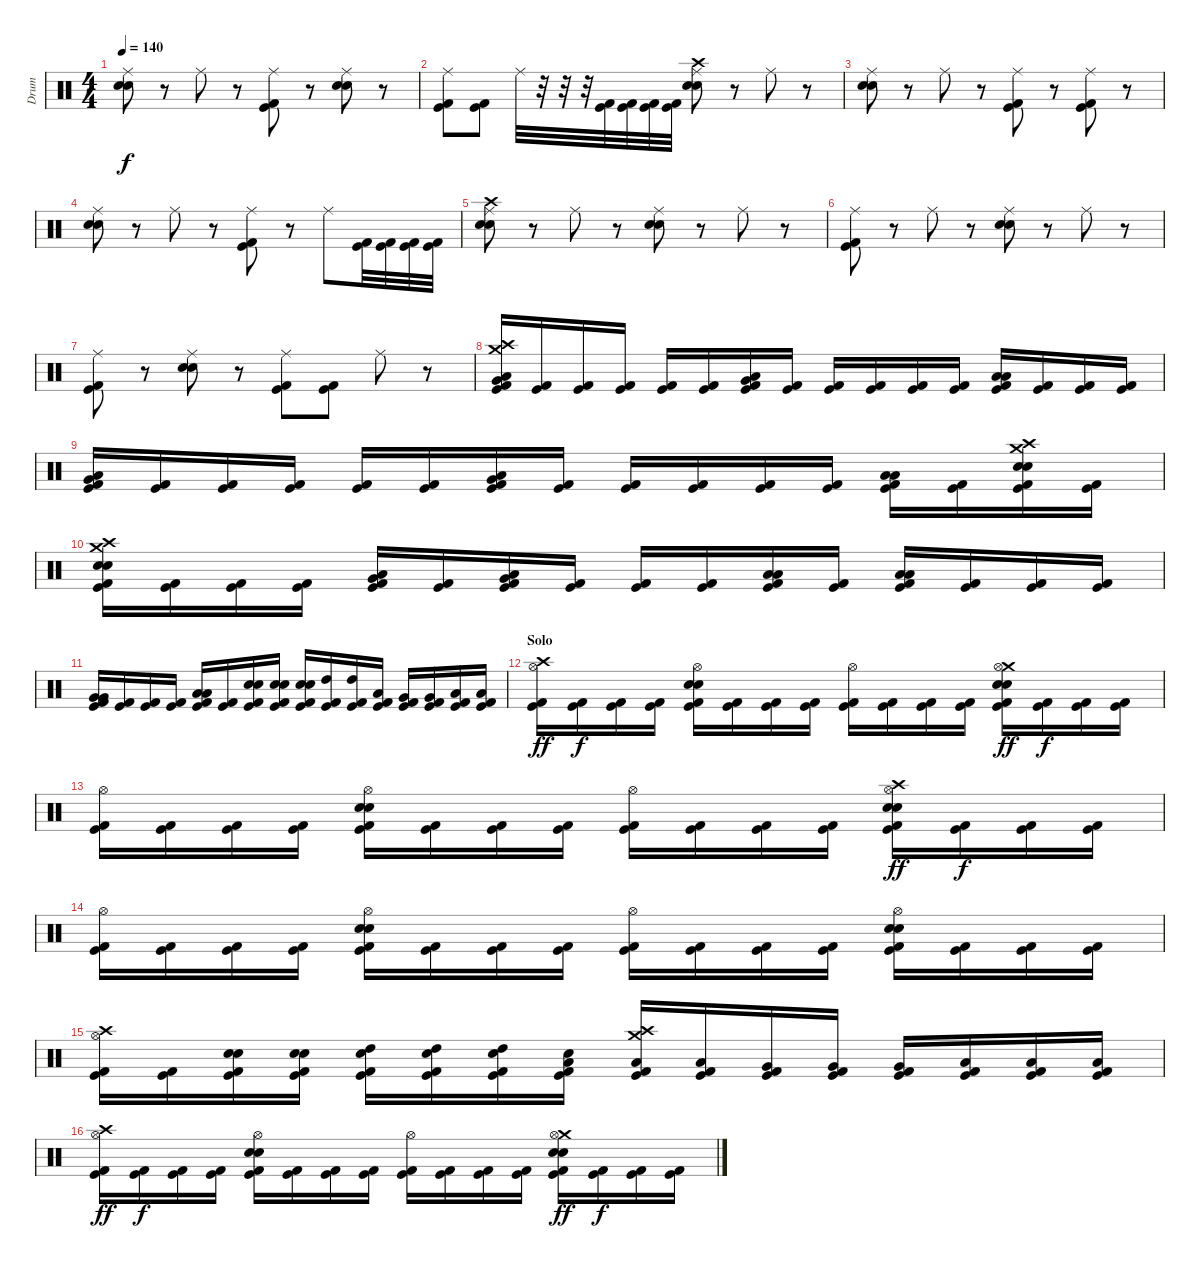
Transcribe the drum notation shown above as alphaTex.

\track ("Drum" "Drum") {instrument percussion}
\staff {score}
\articulation defaults
\ts (4 4)
\tempo 140
\clef neutral
\ks c
("Ride (middle)" "Snare (hit) 2" "Electric Snare (hit)").8{dy f} r.8 "Ride (middle)".8 r.8 ("Ride (middle)" "Kick (hit)" "Kick (hit) 2").8 r.8 ("Ride (middle)" "Snare (hit) 2" "Electric Snare (hit)").8 r.8 |
("Ride (middle)" "Kick (hit)" "Kick (hit) 2").8 ("Kick (hit)" "Kick (hit) 2").8 "Ride (middle)".32 r.32 r.32 r.32 ("Kick (hit)" "Kick (hit) 2").32 ("Kick (hit)" "Kick (hit) 2").32 ("Kick (hit)" "Kick (hit) 2").32 ("Kick (hit)" "Kick (hit) 2").32 ("Crash high (hit)" "Ride (middle)" "Electric Snare (hit)" "Snare (hit) 2").8 r.8 "Ride (middle)".8 r.8 |
("Ride (middle)" "Snare (hit) 2" "Electric Snare (hit)").8 r.8 "Ride (middle)".8 r.8 ("Ride (middle)" "Kick (hit)" "Kick (hit) 2").8 r.8 ("Ride (middle)" "Kick (hit)" "Kick (hit) 2").8 r.8 |
("Ride (middle)" "Snare (hit) 2" "Electric Snare (hit)").8 r.8 "Ride (middle)".8 r.8 ("Ride (middle)" "Kick (hit)" "Kick (hit) 2").8 r.8 "Ride (middle)".8 ("Kick (hit)" "Kick (hit) 2").32 ("Kick (hit)" "Kick (hit) 2").32 ("Kick (hit)" "Kick (hit) 2").32 ("Kick (hit)" "Kick (hit) 2").32 |
("Crash high (hit)" "Ride (middle)" "Snare (hit) 2" "Electric Snare (hit)").8 r.8 "Ride (middle)".8 r.8 ("Ride (middle)" "Electric Snare (hit)" "Snare (hit) 2").8 r.8 "Ride (middle)".8 r.8 |
("Ride (middle)" "Kick (hit)" "Kick (hit) 2").8 r.8 "Ride (middle)".8 r.8 ("Ride (middle)" "Snare (hit) 2" "Electric Snare (hit)").8 r.8 "Ride (middle)".8 r.8 |
("Ride (middle)" "Kick (hit)" "Kick (hit) 2").8 r.8 ("Ride (middle)" "Snare (hit) 2" "Electric Snare (hit)").8 r.8 ("Ride (middle)" "Kick (hit)" "Kick (hit) 2").8 ("Kick (hit)" "Kick (hit) 2").8 "Ride (middle)".8 r.8 |
("Crash high (hit)" "Crash medium (hit)" "Very Low Tom (hit)" "Low Floor Tom (hit)" "Kick (hit)" "Kick (hit) 2").16 ("Kick (hit)" "Kick (hit) 2").16 ("Kick (hit)" "Kick (hit) 2").16 ("Kick (hit)" "Kick (hit) 2").16 ("Kick (hit)" "Kick (hit) 2").16 ("Kick (hit)" "Kick (hit) 2").16 ("Very Low Tom (hit)" "Low Floor Tom (hit)" "Kick (hit)" "Kick (hit) 2").16 ("Kick (hit)" "Kick (hit) 2").16 ("Kick (hit)" "Kick (hit) 2").16 ("Kick (hit)" "Kick (hit) 2").16 ("Kick (hit)" "Kick (hit) 2").16 ("Kick (hit)" "Kick (hit) 2").16 ("Low Floor Tom (hit)" "Low Floor Tom (hit)" "Kick (hit)" "Kick (hit) 2").16 ("Kick (hit)" "Kick (hit) 2").16 ("Kick (hit)" "Kick (hit) 2").16 ("Kick (hit)" "Kick (hit) 2").16 |
("Very Low Tom (hit)" "Low Floor Tom (hit)" "Kick (hit)" "Kick (hit) 2").16 ("Kick (hit)" "Kick (hit) 2").16 ("Kick (hit)" "Kick (hit) 2").16 ("Kick (hit)" "Kick (hit) 2").16 ("Kick (hit)" "Kick (hit) 2").16 ("Kick (hit)" "Kick (hit) 2").16 ("Very Low Tom (hit)" "Low Floor Tom (hit)" "Kick (hit)" "Kick (hit) 2").16 ("Kick (hit)" "Kick (hit) 2").16 ("Kick (hit)" "Kick (hit) 2").16 ("Kick (hit)" "Kick (hit) 2").16 ("Kick (hit)" "Kick (hit) 2").16 ("Kick (hit)" "Kick (hit) 2").16 ("Low Floor Tom (hit)" "Low Floor Tom (hit)" "Kick (hit)" "Kick (hit) 2").16 ("Kick (hit)" "Kick (hit) 2").16 ("Crash medium (hit)" "Crash high (hit)" "Electric Snare (hit)" "Snare (hit) 2" "Kick (hit)" "Kick (hit) 2").16 ("Kick (hit)" "Kick (hit) 2").16 |
("Crash high (hit)" "Crash medium (hit)" "Electric Snare (hit)" "Snare (hit) 2" "Kick (hit)" "Kick (hit) 2").16 ("Kick (hit)" "Kick (hit) 2").16 ("Kick (hit)" "Kick (hit) 2").16 ("Kick (hit)" "Kick (hit) 2").16 ("Very Low Tom (hit)" "Low Floor Tom (hit)" "Kick (hit)" "Kick (hit) 2").16 ("Kick (hit)" "Kick (hit) 2").16 ("Very Low Tom (hit)" "Low Floor Tom (hit)" "Kick (hit)" "Kick (hit) 2").16 ("Kick (hit)" "Kick (hit) 2").16 ("Kick (hit)" "Kick (hit) 2").16 ("Kick (hit)" "Kick (hit) 2").16 ("Low Floor Tom (hit)" "Low Floor Tom (hit)" "Kick (hit)" "Kick (hit) 2").16 ("Kick (hit)" "Kick (hit) 2").16 ("Low Floor Tom (hit)" "Low Floor Tom (hit)" "Kick (hit)" "Kick (hit) 2").16 ("Kick (hit)" "Kick (hit) 2").16 ("Kick (hit)" "Kick (hit) 2").16 ("Kick (hit)" "Kick (hit) 2").16 |
("Very Low Tom (hit)" "Very Low Tom (hit)" "Kick (hit)" "Kick (hit) 2").16 ("Kick (hit)" "Kick (hit) 2").16 ("Kick (hit)" "Kick (hit) 2").16 ("Kick (hit)" "Kick (hit) 2").16 ("Low Floor Tom (hit)" "Low Floor Tom (hit)" "Kick (hit)" "Kick (hit) 2").16 ("Kick (hit)" "Kick (hit) 2").16 ("Snare (hit) 2" "Electric Snare (hit)" "Kick (hit)" "Kick (hit) 2").16 ("Snare (hit) 2" "Electric Snare (hit)" "Kick (hit)" "Kick (hit) 2").16 ("Snare (hit) 2" "Electric Snare (hit)" "Kick (hit)" "Kick (hit) 2").16 ("High Tom (hit)" "Kick (hit)" "Kick (hit) 2").16 ("High Tom (hit)" "Kick (hit)" "Kick (hit) 2").16 ("Low Tom (hit)" "Kick (hit)" "Kick (hit) 2").16 ("Very Low Tom (hit)" "Kick (hit)" "Kick (hit) 2").16 ("Very Low Tom (hit)" "Kick (hit)" "Kick (hit) 2").16 ("Low Floor Tom (hit)" "Kick (hit)" "Kick (hit) 2").16 ("Low Floor Tom (hit)" "Kick (hit)" "Kick (hit) 2").16 |
\section ("" "Solo")
("Crash high (hit)" "Hi-Hat (open)" "Kick (hit)" "Kick (hit) 2").16{dy ff} ("Kick (hit)" "Kick (hit) 2").16{dy f} ("Kick (hit)" "Kick (hit) 2").16 ("Kick (hit)" "Kick (hit) 2").16 ("Hi-Hat (open)" "Snare (hit) 2" "Electric Snare (hit)" "Kick (hit)" "Kick (hit) 2").16 ("Kick (hit)" "Kick (hit) 2").16 ("Kick (hit)" "Kick (hit) 2").16 ("Kick (hit)" "Kick (hit) 2").16 ("Hi-Hat (open)" "Kick (hit)" "Kick (hit) 2").16 ("Kick (hit)" "Kick (hit) 2").16 ("Kick (hit)" "Kick (hit) 2").16 ("Kick (hit)" "Kick (hit) 2").16 ("Crash medium (hit)" "Hi-Hat (open)" "Snare (hit) 2" "Electric Snare (hit)" "Kick (hit)" "Kick (hit) 2").16{dy ff} ("Kick (hit)" "Kick (hit) 2").16{dy f} ("Kick (hit)" "Kick (hit) 2").16 ("Kick (hit)" "Kick (hit) 2").16 |
("Hi-Hat (open)" "Kick (hit)" "Kick (hit) 2").16 ("Kick (hit)" "Kick (hit) 2").16 ("Kick (hit)" "Kick (hit) 2").16 ("Kick (hit)" "Kick (hit) 2").16 ("Hi-Hat (open)" "Snare (hit) 2" "Electric Snare (hit)" "Kick (hit)" "Kick (hit) 2").16 ("Kick (hit)" "Kick (hit) 2").16 ("Kick (hit)" "Kick (hit) 2").16 ("Kick (hit)" "Kick (hit) 2").16 ("Hi-Hat (open)" "Kick (hit)" "Kick (hit) 2").16 ("Kick (hit)" "Kick (hit) 2").16 ("Kick (hit)" "Kick (hit) 2").16 ("Kick (hit)" "Kick (hit) 2").16 ("Crash high (hit)" "Hi-Hat (open)" "Snare (hit) 2" "Electric Snare (hit)" "Kick (hit)" "Kick (hit) 2").16{dy ff} ("Kick (hit)" "Kick (hit) 2").16{dy f} ("Kick (hit)" "Kick (hit) 2").16 ("Kick (hit)" "Kick (hit) 2").16 |
("Hi-Hat (open)" "Kick (hit)" "Kick (hit) 2").16 ("Kick (hit)" "Kick (hit) 2").16 ("Kick (hit)" "Kick (hit) 2").16 ("Kick (hit)" "Kick (hit) 2").16 ("Hi-Hat (open)" "Snare (hit) 2" "Electric Snare (hit)" "Kick (hit)" "Kick (hit) 2").16 ("Kick (hit)" "Kick (hit) 2").16 ("Kick (hit)" "Kick (hit) 2").16 ("Kick (hit)" "Kick (hit) 2").16 ("Hi-Hat (open)" "Kick (hit)" "Kick (hit) 2").16 ("Kick (hit)" "Kick (hit) 2").16 ("Kick (hit)" "Kick (hit) 2").16 ("Kick (hit)" "Kick (hit) 2").16 ("Hi-Hat (open)" "Snare (hit) 2" "Electric Snare (hit)" "Kick (hit)" "Kick (hit) 2").16 ("Kick (hit)" "Kick (hit) 2").16 ("Kick (hit)" "Kick (hit) 2").16 ("Kick (hit)" "Kick (hit) 2").16 |
("Crash high (hit)" "Hi-Hat (open)" "Kick (hit)" "Kick (hit) 2").16 ("Kick (hit)" "Kick (hit) 2").16 ("Snare (hit) 2" "Electric Snare (hit)" "Kick (hit)" "Kick (hit) 2").16 ("Snare (hit) 2" "Electric Snare (hit)" "Kick (hit)" "Kick (hit) 2").16 ("High Tom (hit)" "Electric Snare (hit)" "Kick (hit)" "Kick (hit) 2").16 ("High Tom (hit)" "Electric Snare (hit)" "Kick (hit)" "Kick (hit) 2").16 ("High Tom (hit)" "Electric Snare (hit)" "Kick (hit)" "Kick (hit) 2").16 ("Low Tom (hit)" "Electric Snare (hit)" "Kick (hit)" "Kick (hit) 2").16 ("Crash high (hit)" "Crash medium (hit)" "Low Tom (hit)" "Kick (hit)" "Kick (hit) 2").16 ("Low Tom (hit)" "Kick (hit)" "Kick (hit) 2").16 ("Very Low Tom (hit)" "Kick (hit)" "Kick (hit) 2").16 ("Very Low Tom (hit)" "Kick (hit)" "Kick (hit) 2").16 ("Very Low Tom (hit)" "Kick (hit)" "Kick (hit) 2").16 ("Low Floor Tom (hit)" "Kick (hit)" "Kick (hit) 2").16 ("Low Floor Tom (hit)" "Kick (hit)" "Kick (hit) 2").16 ("Low Floor Tom (hit)" "Kick (hit)" "Kick (hit) 2").16 |
("Crash high (hit)" "Hi-Hat (open)" "Kick (hit)" "Kick (hit) 2").16{dy ff} ("Kick (hit)" "Kick (hit) 2").16{dy f} ("Kick (hit)" "Kick (hit) 2").16 ("Kick (hit)" "Kick (hit) 2").16 ("Hi-Hat (open)" "Snare (hit) 2" "Electric Snare (hit)" "Kick (hit)" "Kick (hit) 2").16 ("Kick (hit)" "Kick (hit) 2").16 ("Kick (hit)" "Kick (hit) 2").16 ("Kick (hit)" "Kick (hit) 2").16 ("Hi-Hat (open)" "Kick (hit)" "Kick (hit) 2").16 ("Kick (hit)" "Kick (hit) 2").16 ("Kick (hit)" "Kick (hit) 2").16 ("Kick (hit)" "Kick (hit) 2").16 ("Crash medium (hit)" "Hi-Hat (open)" "Snare (hit) 2" "Electric Snare (hit)" "Kick (hit)" "Kick (hit) 2").16{dy ff} ("Kick (hit)" "Kick (hit) 2").16{dy f} ("Kick (hit)" "Kick (hit) 2").16 ("Kick (hit)" "Kick (hit) 2").16
